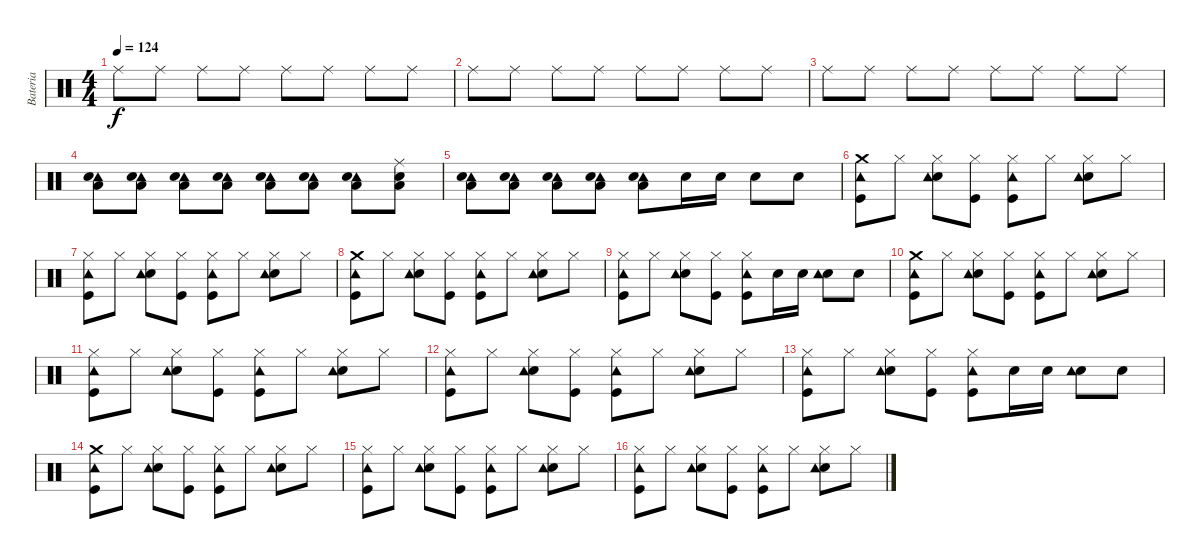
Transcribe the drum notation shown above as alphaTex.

\track ("Bateria" "Bateria") {instrument percussion}
\staff {score}
\articulation defaults
\ts (4 4)
\tempo 124
\clef neutral
\ks c "Ride (middle)".8{dy f} "Ride (middle)".8 "Ride (middle)".8 "Ride (middle)".8 "Ride (middle)".8 "Ride (middle)".8 "Ride (middle)".8 "Ride (middle)".8
|
"Ride (middle)".8 "Ride (middle)".8 "Ride (middle)".8 "Ride (middle)".8 "Ride (middle)".8 "Ride (middle)".8 "Ride (middle)".8 "Ride (middle)".8 |
"Ride (middle)".8 "Ride (middle)".8 "Ride (middle)".8 "Ride (middle)".8 "Ride (middle)".8 "Ride (middle)".8 "Ride (middle)".8 "Ride (middle)".8{volume 4} |
("Tambourine (hit)" "Snare (hit) 2" "Low Floor Tom (hit)").8{volume 13} ("Tambourine (hit)" "Snare (hit) 2" "Low Floor Tom (hit)").8 ("Tambourine (hit)" "Snare (hit) 2" "Low Floor Tom (hit)").8 ("Tambourine (hit)" "Snare (hit) 2" "Low Floor Tom (hit)").8 ("Tambourine (hit)" "Snare (hit) 2" "Low Floor Tom (hit)").8 ("Tambourine (hit)" "Snare (hit) 2" "Low Floor Tom (hit)").8 ("Tambourine (hit)" "Snare (hit) 2" "Low Floor Tom (hit)").8 ("Ride (middle)" "Snare (hit) 2" "Low Floor Tom (hit)").8 |
("Tambourine (hit)" "Snare (hit) 2" "Low Floor Tom (hit)").8 ("Tambourine (hit)" "Snare (hit) 2" "Low Floor Tom (hit)").8 ("Tambourine (hit)" "Snare (hit) 2" "Low Floor Tom (hit)").8 ("Tambourine (hit)" "Snare (hit) 2" "Low Floor Tom (hit)").8 ("Tambourine (hit)" "Snare (hit) 2" "Low Floor Tom (hit)").8 "Snare (hit) 2".16 "Snare (hit) 2".16 "Snare (hit) 2".8 "Snare (hit) 2".8 |
("Crash medium (hit)" "Kick (hit)" "Tambourine (hit)").8 "Hi-Hat (closed)".8 ("Hi-Hat (closed)" "Snare (hit) 2" "Tambourine (hit)").8 ("Hi-Hat (closed)" "Kick (hit)").8 ("Hi-Hat (closed)" "Kick (hit)" "Tambourine (hit)").8 "Hi-Hat (closed)".8 ("Hi-Hat (closed)" "Snare (hit) 2" "Tambourine (hit)").8 "Hi-Hat (closed)".8 |
("Hi-Hat (closed)" "Kick (hit)" "Tambourine (hit)").8 "Hi-Hat (closed)".8 ("Hi-Hat (closed)" "Snare (hit) 2" "Tambourine (hit)").8 ("Hi-Hat (closed)" "Kick (hit)").8 ("Hi-Hat (closed)" "Kick (hit)" "Tambourine (hit)").8 "Hi-Hat (closed)".8 ("Hi-Hat (closed)" "Snare (hit) 2" "Tambourine (hit)").8 "Hi-Hat (closed)".8 |
("Crash medium (hit)" "Kick (hit)" "Tambourine (hit)").8 "Hi-Hat (closed)".8 ("Hi-Hat (closed)" "Snare (hit) 2" "Tambourine (hit)").8 ("Hi-Hat (closed)" "Kick (hit)").8 ("Hi-Hat (closed)" "Kick (hit)" "Tambourine (hit)").8 "Hi-Hat (closed)".8 ("Hi-Hat (closed)" "Snare (hit) 2" "Tambourine (hit)").8 "Hi-Hat (closed)".8 |
("Hi-Hat (closed)" "Kick (hit)" "Tambourine (hit)").8 "Hi-Hat (closed)".8 ("Hi-Hat (closed)" "Snare (hit) 2" "Tambourine (hit)").8 ("Hi-Hat (closed)" "Kick (hit)").8 ("Hi-Hat (closed)" "Kick (hit)" "Tambourine (hit)").8 "Snare (hit) 2".16 "Snare (hit) 2".16 ("Snare (hit) 2" "Tambourine (hit)").8 "Snare (hit) 2".8 |
("Crash medium (hit)" "Kick (hit)" "Tambourine (hit)").8 "Hi-Hat (closed)".8 ("Hi-Hat (closed)" "Snare (hit) 2" "Tambourine (hit)").8 ("Hi-Hat (closed)" "Kick (hit)").8 ("Hi-Hat (closed)" "Kick (hit)" "Tambourine (hit)").8 "Hi-Hat (closed)".8 ("Hi-Hat (closed)" "Snare (hit) 2" "Tambourine (hit)").8 "Hi-Hat (closed)".8 |
("Hi-Hat (closed)" "Kick (hit)" "Tambourine (hit)").8 "Hi-Hat (closed)".8 ("Hi-Hat (closed)" "Snare (hit) 2" "Tambourine (hit)").8 ("Hi-Hat (closed)" "Kick (hit)").8 ("Hi-Hat (closed)" "Kick (hit)" "Tambourine (hit)").8 "Hi-Hat (closed)".8 ("Hi-Hat (closed)" "Snare (hit) 2" "Tambourine (hit)").8 "Hi-Hat (closed)".8 |
("Hi-Hat (closed)" "Kick (hit)" "Tambourine (hit)").8 "Hi-Hat (closed)".8 ("Hi-Hat (closed)" "Snare (hit) 2" "Tambourine (hit)").8 ("Hi-Hat (closed)" "Kick (hit)").8 ("Hi-Hat (closed)" "Kick (hit)" "Tambourine (hit)").8 "Hi-Hat (closed)".8 ("Hi-Hat (closed)" "Snare (hit) 2" "Tambourine (hit)").8 "Hi-Hat (closed)".8 |
("Hi-Hat (closed)" "Kick (hit)" "Tambourine (hit)").8 "Hi-Hat (closed)".8 ("Hi-Hat (closed)" "Snare (hit) 2" "Tambourine (hit)").8 ("Hi-Hat (closed)" "Kick (hit)").8 ("Hi-Hat (closed)" "Kick (hit)" "Tambourine (hit)").8 "Snare (hit) 2".16 "Snare (hit) 2".16 ("Snare (hit) 2" "Tambourine (hit)").8 "Snare (hit) 2".8 |
("Crash medium (hit)" "Kick (hit)" "Tambourine (hit)").8 "Hi-Hat (closed)".8 ("Hi-Hat (closed)" "Snare (hit) 2" "Tambourine (hit)").8 ("Hi-Hat (closed)" "Kick (hit)").8 ("Hi-Hat (closed)" "Kick (hit)" "Tambourine (hit)").8 "Hi-Hat (closed)".8 ("Hi-Hat (closed)" "Snare (hit) 2" "Tambourine (hit)").8 "Hi-Hat (closed)".8 |
("Hi-Hat (closed)" "Kick (hit)" "Tambourine (hit)").8 "Hi-Hat (closed)".8 ("Hi-Hat (closed)" "Snare (hit) 2" "Tambourine (hit)").8 ("Hi-Hat (closed)" "Kick (hit)").8 ("Hi-Hat (closed)" "Kick (hit)" "Tambourine (hit)").8 "Hi-Hat (closed)".8 ("Hi-Hat (closed)" "Snare (hit) 2" "Tambourine (hit)").8 "Hi-Hat (closed)".8 |
("Hi-Hat (closed)" "Kick (hit)" "Tambourine (hit)").8 "Hi-Hat (closed)".8 ("Hi-Hat (closed)" "Snare (hit) 2" "Tambourine (hit)").8 ("Hi-Hat (closed)" "Kick (hit)").8 ("Hi-Hat (closed)" "Kick (hit)" "Tambourine (hit)").8 "Hi-Hat (closed)".8 ("Hi-Hat (closed)" "Snare (hit) 2" "Tambourine (hit)").8 "Hi-Hat (closed)".8
